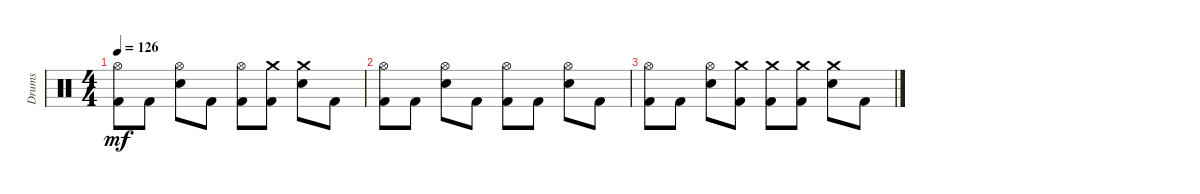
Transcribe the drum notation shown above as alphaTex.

\track ("Drums" "Drums") {instrument percussion}
\staff {score}
\articulation defaults
\ts (4 4)
\tempo 126
\clef neutral
\ks c
("Hi-Hat (open)" "Kick (hit) 2").8{dy mf} "Kick (hit) 2".8 ("Hi-Hat (open)" "Electric Snare (hit)").8 "Kick (hit) 2".8 ("Hi-Hat (open)" "Kick (hit) 2").8 ("Crash medium (hit)" "Kick (hit) 2").8 ("Crash medium (hit)" "Electric Snare (hit)").8 "Kick (hit) 2".8 |
("Hi-Hat (open)" "Kick (hit) 2").8 "Kick (hit) 2".8 ("Hi-Hat (open)" "Electric Snare (hit)").8 "Kick (hit) 2".8 ("Hi-Hat (open)" "Kick (hit) 2").8 "Kick (hit) 2".8 ("Hi-Hat (open)" "Electric Snare (hit)").8 "Kick (hit) 2".8 |
("Hi-Hat (open)" "Kick (hit) 2").8 "Kick (hit) 2".8 ("Hi-Hat (open)" "Electric Snare (hit)").8 ("Crash medium (hit)" "Kick (hit) 2").8 ("Crash medium (hit)" "Kick (hit) 2").8 ("Crash medium (hit)" "Kick (hit) 2").8 ("Crash medium (hit)" "Electric Snare (hit)").8 "Kick (hit) 2".8
